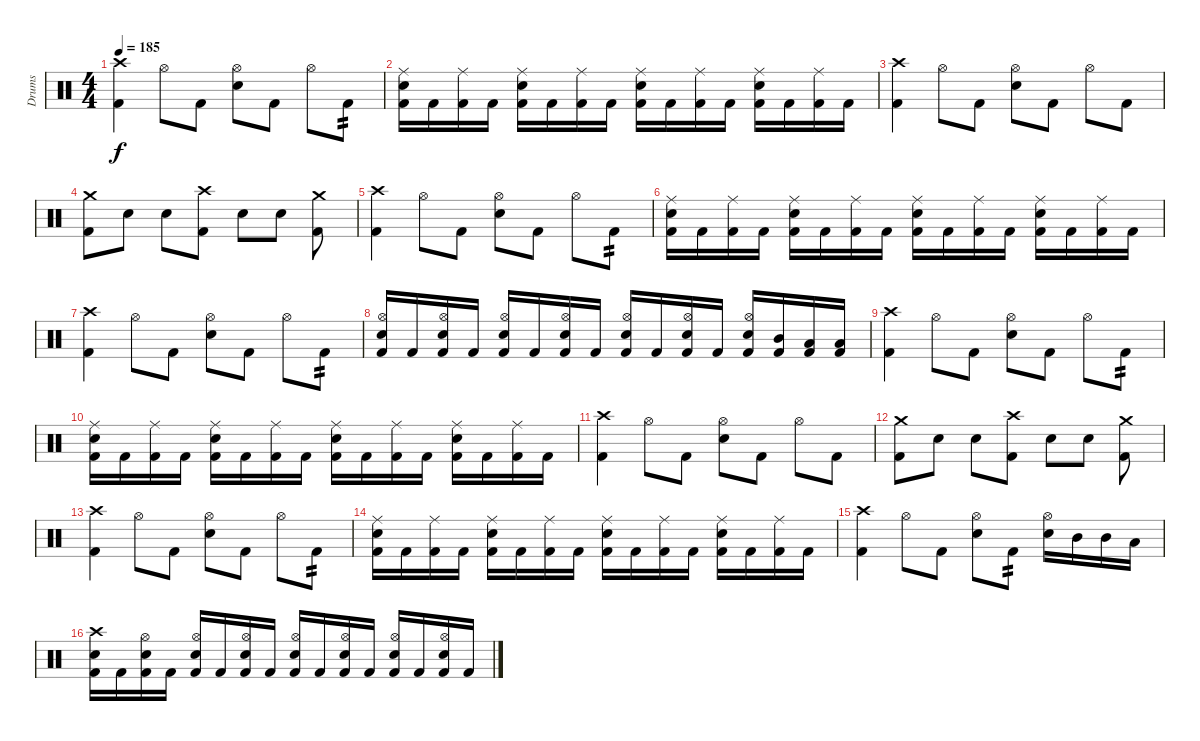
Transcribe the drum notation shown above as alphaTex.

\track ("Drums" "Drums") {instrument percussion}
\staff {score}
\articulation defaults
\ts (4 4)
\tempo 185
\clef neutral
\ks c
("Crash high (hit)" "Kick (hit) 2").4{dy f} "Hi-Hat (open)".8 "Kick (hit) 2".8 ("Hi-Hat (open)" "Electric Snare (hit)").8 "Kick (hit) 2".8 "Hi-Hat (open)".8 "Kick (hit) 2".8{tp 2} |
("Ride (middle)" "Electric Snare (hit)" "Kick (hit) 2").16 "Kick (hit) 2".16 ("Ride (middle)" "Kick (hit) 2").16 "Kick (hit) 2".16 ("Ride (middle)" "Electric Snare (hit)" "Kick (hit) 2").16 "Kick (hit) 2".16 ("Ride (middle)" "Kick (hit) 2").16 "Kick (hit) 2".16 ("Ride (middle)" "Electric Snare (hit)" "Kick (hit) 2").16 "Kick (hit) 2".16 ("Ride (middle)" "Kick (hit) 2").16 "Kick (hit) 2".16 ("Ride (middle)" "Electric Snare (hit)" "Kick (hit) 2").16 "Kick (hit) 2".16 ("Ride (middle)" "Kick (hit) 2").16 "Kick (hit) 2".16 |
("Crash high (hit)" "Kick (hit) 2").4 "Hi-Hat (open)".8 "Kick (hit) 2".8 ("Hi-Hat (open)" "Electric Snare (hit)").8 "Kick (hit) 2".8 "Hi-Hat (open)".8 "Kick (hit) 2".8 |
("Crash medium (hit)" "Kick (hit) 2").8 "Electric Snare (hit)".8 "Electric Snare (hit)".8 ("Crash high (hit)" "Kick (hit) 2").8 "Electric Snare (hit)".8 "Electric Snare (hit)".8 ("Crash medium (hit)" "Kick (hit) 2").8 |
("Crash high (hit)" "Kick (hit) 2").4 "Hi-Hat (open)".8 "Kick (hit) 2".8 ("Hi-Hat (open)" "Electric Snare (hit)").8 "Kick (hit) 2".8 "Hi-Hat (open)".8 "Kick (hit) 2".8{tp 2} |
("Ride (middle)" "Electric Snare (hit)" "Kick (hit) 2").16 "Kick (hit) 2".16 ("Ride (middle)" "Kick (hit) 2").16 "Kick (hit) 2".16 ("Ride (middle)" "Electric Snare (hit)" "Kick (hit) 2").16 "Kick (hit) 2".16 ("Ride (middle)" "Kick (hit) 2").16 "Kick (hit) 2".16 ("Ride (middle)" "Electric Snare (hit)" "Kick (hit) 2").16 "Kick (hit) 2".16 ("Ride (middle)" "Kick (hit) 2").16 "Kick (hit) 2".16 ("Ride (middle)" "Electric Snare (hit)" "Kick (hit) 2").16 "Kick (hit) 2".16 ("Ride (middle)" "Kick (hit) 2").16 "Kick (hit) 2".16 |
("Crash high (hit)" "Kick (hit) 2").4 "Hi-Hat (open)".8 "Kick (hit) 2".8 ("Hi-Hat (open)" "Electric Snare (hit)").8 "Kick (hit) 2".8 "Hi-Hat (open)".8 "Kick (hit) 2".8{tp 2} |
("Hi-Hat (open)" "Electric Snare (hit)" "Kick (hit) 2").16 "Kick (hit) 2".16 ("Hi-Hat (open)" "Electric Snare (hit)" "Kick (hit) 2").16 "Kick (hit) 2".16 ("Hi-Hat (open)" "Electric Snare (hit)" "Kick (hit) 2").16 "Kick (hit) 2".16 ("Hi-Hat (open)" "Electric Snare (hit)" "Kick (hit) 2").16 "Kick (hit) 2".16 ("Hi-Hat (open)" "Electric Snare (hit)" "Kick (hit) 2").16 "Kick (hit) 2".16 ("Hi-Hat (open)" "Electric Snare (hit)" "Kick (hit) 2").16 "Kick (hit) 2".16 ("Hi-Hat (open)" "Electric Snare (hit)" "Kick (hit) 2").16 ("Mid Tom (hit)" "Kick (hit) 2").16 ("Low Tom (hit)" "Kick (hit) 2").16 ("Low Tom (hit)" "Kick (hit) 2").16 |
("Crash high (hit)" "Kick (hit) 2").4 "Hi-Hat (open)".8 "Kick (hit) 2".8 ("Hi-Hat (open)" "Electric Snare (hit)").8 "Kick (hit) 2".8 "Hi-Hat (open)".8 "Kick (hit) 2".8{tp 2} |
("Ride (middle)" "Electric Snare (hit)" "Kick (hit) 2").16 "Kick (hit) 2".16 ("Ride (middle)" "Kick (hit) 2").16 "Kick (hit) 2".16 ("Ride (middle)" "Electric Snare (hit)" "Kick (hit) 2").16 "Kick (hit) 2".16 ("Ride (middle)" "Kick (hit) 2").16 "Kick (hit) 2".16 ("Ride (middle)" "Electric Snare (hit)" "Kick (hit) 2").16 "Kick (hit) 2".16 ("Ride (middle)" "Kick (hit) 2").16 "Kick (hit) 2".16 ("Ride (middle)" "Electric Snare (hit)" "Kick (hit) 2").16 "Kick (hit) 2".16 ("Ride (middle)" "Kick (hit) 2").16 "Kick (hit) 2".16 |
("Crash high (hit)" "Kick (hit) 2").4 "Hi-Hat (open)".8 "Kick (hit) 2".8 ("Hi-Hat (open)" "Electric Snare (hit)").8 "Kick (hit) 2".8 "Hi-Hat (open)".8 "Kick (hit) 2".8 |
("Crash medium (hit)" "Kick (hit) 2").8 "Electric Snare (hit)".8 "Electric Snare (hit)".8 ("Crash high (hit)" "Kick (hit) 2").8 "Electric Snare (hit)".8 "Electric Snare (hit)".8 ("Crash medium (hit)" "Kick (hit) 2").8 |
("Crash high (hit)" "Kick (hit) 2").4 "Hi-Hat (open)".8 "Kick (hit) 2".8 ("Hi-Hat (open)" "Electric Snare (hit)").8 "Kick (hit) 2".8 "Hi-Hat (open)".8 "Kick (hit) 2".8{tp 2} |
("Ride (middle)" "Electric Snare (hit)" "Kick (hit) 2").16 "Kick (hit) 2".16 ("Ride (middle)" "Kick (hit) 2").16 "Kick (hit) 2".16 ("Ride (middle)" "Electric Snare (hit)" "Kick (hit) 2").16 "Kick (hit) 2".16 ("Ride (middle)" "Kick (hit) 2").16 "Kick (hit) 2".16 ("Ride (middle)" "Electric Snare (hit)" "Kick (hit) 2").16 "Kick (hit) 2".16 ("Ride (middle)" "Kick (hit) 2").16 "Kick (hit) 2".16 ("Ride (middle)" "Electric Snare (hit)" "Kick (hit) 2").16 "Kick (hit) 2".16 ("Ride (middle)" "Kick (hit) 2").16 "Kick (hit) 2".16 |
("Crash high (hit)" "Kick (hit) 2").4 "Hi-Hat (open)".8 "Kick (hit) 2".8 ("Hi-Hat (open)" "Electric Snare (hit)").8 "Kick (hit) 2".8{tp 2} ("Hi-Hat (open)" "Electric Snare (hit)").16 "Mid Tom (hit)".16 "Mid Tom (hit)".16 "Low Tom (hit)".16 |
("Crash high (hit)" "Electric Snare (hit)" "Kick (hit) 2").16 "Kick (hit) 2".16 ("Hi-Hat (open)" "Electric Snare (hit)" "Kick (hit) 2").16 "Kick (hit) 2".16 ("Hi-Hat (open)" "Electric Snare (hit)" "Kick (hit) 2").16 "Kick (hit) 2".16 ("Hi-Hat (open)" "Electric Snare (hit)" "Kick (hit) 2").16 "Kick (hit) 2".16 ("Hi-Hat (open)" "Electric Snare (hit)" "Kick (hit) 2").16 "Kick (hit) 2".16 ("Hi-Hat (open)" "Electric Snare (hit)" "Kick (hit) 2").16 "Kick (hit) 2".16 ("Hi-Hat (open)" "Electric Snare (hit)" "Kick (hit) 2").16 "Kick (hit) 2".16 ("Hi-Hat (open)" "Electric Snare (hit)" "Kick (hit) 2").16 "Kick (hit) 2".16
